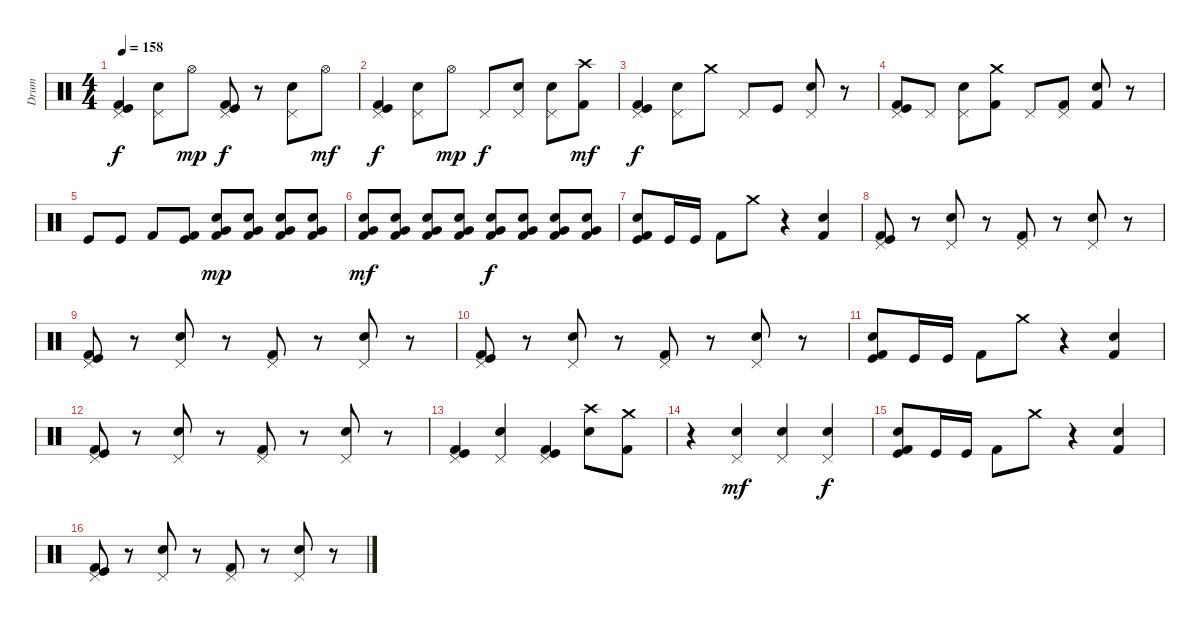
\track ("Drum" "Drum") {instrument percussion}
\staff {score}
\articulation defaults
\ts (4 4)
\tempo 158
\clef neutral
\ks c
("Pedal Hi-Hat (hit)" "Kick (hit)" "Kick (hit) 2").4{dy f} ("Electric Snare (hit)" "Pedal Hi-Hat (hit)").8 "Hi-Hat (open)".8{dy mp} ("Kick (hit) 2" "Kick (hit)" "Pedal Hi-Hat (hit)").8{dy f} r.8 ("Pedal Hi-Hat (hit)" "Electric Snare (hit)").8 "Hi-Hat (open)".8{dy mf} |
("Pedal Hi-Hat (hit)" "Kick (hit)" "Kick (hit) 2").4{dy f} ("Electric Snare (hit)" "Pedal Hi-Hat (hit)").8 "Hi-Hat (open)".8{dy mp} "Pedal Hi-Hat (hit)".8{dy f} ("Pedal Hi-Hat (hit)" "Electric Snare (hit)").8 ("Pedal Hi-Hat (hit)" "Electric Snare (hit)").8 ("Crash high (hit)" "Kick (hit) 2").8{dy mf} |
("Kick (hit) 2" "Kick (hit)" "Pedal Hi-Hat (hit)").4{dy f} ("Pedal Hi-Hat (hit)" "Electric Snare (hit)").8 "Crash medium (hit)".8 "Pedal Hi-Hat (hit)".8 "Kick (hit)".8 ("Pedal Hi-Hat (hit)" "Electric Snare (hit)").8 r.8 |
("Pedal Hi-Hat (hit)" "Kick (hit) 2" "Kick (hit)").8 "Pedal Hi-Hat (hit)".8 ("Pedal Hi-Hat (hit)" "Electric Snare (hit)").8 ("Crash medium (hit)" "Kick (hit) 2").8 "Pedal Hi-Hat (hit)".8 ("Pedal Hi-Hat (hit)" "Kick (hit) 2").8 ("Kick (hit) 2" "Electric Snare (hit)").8 r.8 |
"Kick (hit)".8 "Kick (hit)".8 "Kick (hit) 2".8 ("Kick (hit) 2" "Kick (hit)").8 ("Kick (hit) 2" "Electric Snare (hit)" "Very Low Tom (hit)").8{dy mp} ("Kick (hit) 2" "Electric Snare (hit)" "Very Low Tom (hit)").8 ("Kick (hit) 2" "Electric Snare (hit)" "Very Low Tom (hit)").8 ("Kick (hit) 2" "Electric Snare (hit)" "Very Low Tom (hit)").8 |
("Kick (hit) 2" "Electric Snare (hit)" "Very Low Tom (hit)").8{dy mf} ("Kick (hit) 2" "Electric Snare (hit)" "Very Low Tom (hit)").8 ("Kick (hit) 2" "Electric Snare (hit)" "Very Low Tom (hit)").8 ("Kick (hit) 2" "Electric Snare (hit)" "Very Low Tom (hit)").8 ("Kick (hit) 2" "Electric Snare (hit)" "Very Low Tom (hit)").8{dy f} ("Kick (hit) 2" "Electric Snare (hit)" "Very Low Tom (hit)").8 ("Kick (hit) 2" "Electric Snare (hit)" "Very Low Tom (hit)").8 ("Kick (hit) 2" "Electric Snare (hit)" "Very Low Tom (hit)").8 |
("Electric Snare (hit)" "Kick (hit) 2" "Kick (hit)").8 "Kick (hit)".16 "Kick (hit)".16 "Kick (hit) 2".8 "Crash medium (hit)".8 r.4 ("Kick (hit) 2" "Electric Snare (hit)").4 |
("Pedal Hi-Hat (hit)" "Kick (hit) 2" "Kick (hit)").8 r.8 ("Electric Snare (hit)" "Pedal Hi-Hat (hit)").8 r.8 ("Pedal Hi-Hat (hit)" "Kick (hit) 2").8 r.8 ("Electric Snare (hit)" "Pedal Hi-Hat (hit)").8 r.8 |
("Pedal Hi-Hat (hit)" "Kick (hit) 2" "Kick (hit)").8 r.8 ("Electric Snare (hit)" "Pedal Hi-Hat (hit)").8 r.8 ("Pedal Hi-Hat (hit)" "Kick (hit) 2").8 r.8 ("Electric Snare (hit)" "Pedal Hi-Hat (hit)").8 r.8 |
("Pedal Hi-Hat (hit)" "Kick (hit) 2" "Kick (hit)").8 r.8 ("Electric Snare (hit)" "Pedal Hi-Hat (hit)").8 r.8 ("Pedal Hi-Hat (hit)" "Kick (hit) 2").8 r.8 ("Electric Snare (hit)" "Pedal Hi-Hat (hit)").8 r.8 |
("Electric Snare (hit)" "Kick (hit) 2" "Kick (hit)").8 "Kick (hit)".16 "Kick (hit)".16 "Kick (hit) 2".8 "Crash medium (hit)".8 r.4 ("Kick (hit) 2" "Electric Snare (hit)").4 |
("Pedal Hi-Hat (hit)" "Kick (hit) 2" "Kick (hit)").8 r.8 ("Electric Snare (hit)" "Pedal Hi-Hat (hit)").8 r.8 ("Pedal Hi-Hat (hit)" "Kick (hit) 2").8 r.8 ("Electric Snare (hit)" "Pedal Hi-Hat (hit)").8 r.8 |
("Pedal Hi-Hat (hit)" "Kick (hit) 2" "Kick (hit)").4 ("Electric Snare (hit)" "Pedal Hi-Hat (hit)").4 ("Kick (hit) 2" "Kick (hit)" "Pedal Hi-Hat (hit)").4 ("Crash high (hit)" "Electric Snare (hit)").8 ("Crash medium (hit)" "Kick (hit) 2").8 |
r.4 ("Pedal Hi-Hat (hit)" "Electric Snare (hit)").4{dy mf} ("Pedal Hi-Hat (hit)" "Electric Snare (hit)").4 ("Pedal Hi-Hat (hit)" "Electric Snare (hit)").4{dy f} |
("Electric Snare (hit)" "Kick (hit) 2" "Kick (hit)").8 "Kick (hit)".16 "Kick (hit)".16 "Kick (hit) 2".8 "Crash medium (hit)".8 r.4 ("Kick (hit) 2" "Electric Snare (hit)").4 |
("Pedal Hi-Hat (hit)" "Kick (hit) 2" "Kick (hit)").8 r.8 ("Electric Snare (hit)" "Pedal Hi-Hat (hit)").8 r.8 ("Pedal Hi-Hat (hit)" "Kick (hit) 2").8 r.8 ("Electric Snare (hit)" "Pedal Hi-Hat (hit)").8 r.8
